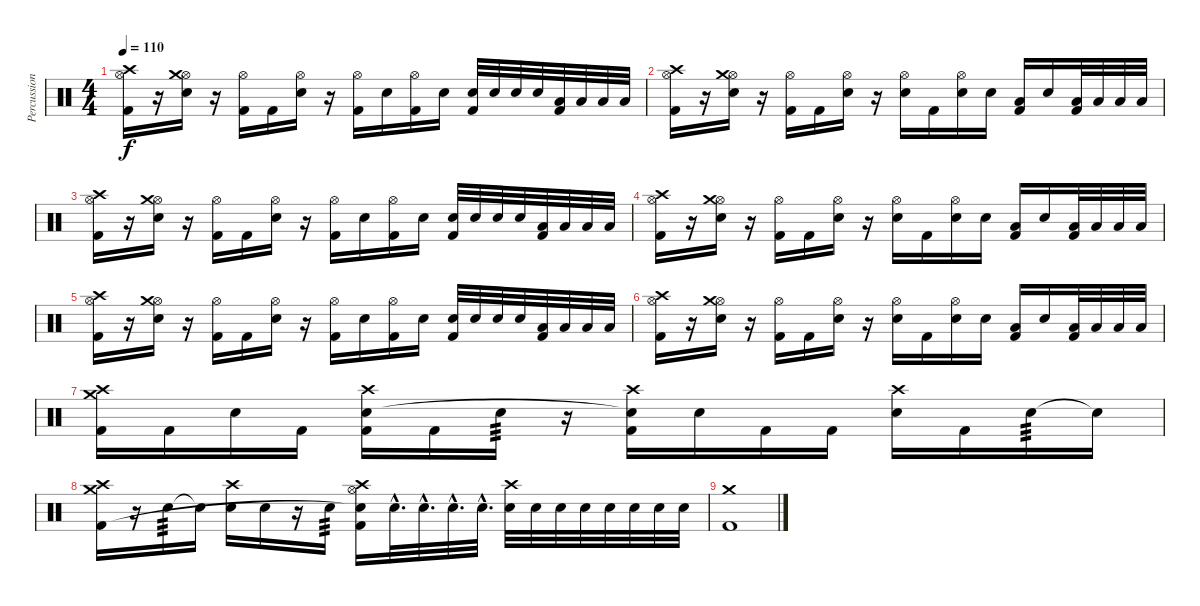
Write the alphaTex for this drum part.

\track ("Percussion" "Percussion") {instrument percussion}
\staff {score}
\articulation defaults
\ts (4 4)
\tempo 110
\clef neutral
\ks c
("Hi-Hat (open)" "Crash high (hit)" "Kick (hit) 2").16{dy f} r.16 ("Hi-Hat (open)" "Crash medium (hit)" "Electric Snare (hit)").16 r.16 ("Hi-Hat (open)" "Kick (hit) 2").16 "Kick (hit) 2".16 ("Hi-Hat (open)" "Electric Snare (hit)").16 r.16 ("Hi-Hat (open)" "Kick (hit) 2").16 "Electric Snare (hit)".16 ("Hi-Hat (open)" "Kick (hit) 2").16 "Electric Snare (hit)".16 ("Electric Snare (hit)" "Kick (hit) 2").32 "Electric Snare (hit)".32 "Electric Snare (hit)".32 "Electric Snare (hit)".32 ("Low Tom (hit)" "Kick (hit) 2").32 "Low Tom (hit)".32 "Low Tom (hit)".32 "Low Tom (hit)".32 |
("Hi-Hat (open)" "Crash high (hit)" "Kick (hit) 2").16 r.16 ("Hi-Hat (open)" "Crash medium (hit)" "Electric Snare (hit)").16 r.16 ("Hi-Hat (open)" "Kick (hit) 2").16 "Kick (hit) 2".16 ("Hi-Hat (open)" "Electric Snare (hit)").16 r.16 ("Hi-Hat (open)" "Electric Snare (hit)").16 "Kick (hit) 2".16 ("Hi-Hat (open)" "Electric Snare (hit)").16 "Electric Snare (hit)".16 ("Low Tom (hit)" "Kick (hit) 2").16 "Electric Snare (hit)".16 ("Low Tom (hit)" "Kick (hit) 2").32 "Low Tom (hit)".32 "Low Tom (hit)".32 "Low Tom (hit)".32 |
("Hi-Hat (open)" "Crash high (hit)" "Kick (hit) 2").16 r.16 ("Hi-Hat (open)" "Crash medium (hit)" "Electric Snare (hit)").16 r.16 ("Hi-Hat (open)" "Kick (hit) 2").16 "Kick (hit) 2".16 ("Hi-Hat (open)" "Electric Snare (hit)").16 r.16 ("Hi-Hat (open)" "Kick (hit) 2").16 "Electric Snare (hit)".16 ("Hi-Hat (open)" "Kick (hit) 2").16 "Electric Snare (hit)".16 ("Electric Snare (hit)" "Kick (hit) 2").32 "Electric Snare (hit)".32 "Electric Snare (hit)".32 "Electric Snare (hit)".32 ("Low Tom (hit)" "Kick (hit) 2").32 "Low Tom (hit)".32 "Low Tom (hit)".32 "Low Tom (hit)".32 |
("Hi-Hat (open)" "Crash high (hit)" "Kick (hit) 2").16 r.16 ("Hi-Hat (open)" "Crash medium (hit)" "Electric Snare (hit)").16 r.16 ("Hi-Hat (open)" "Kick (hit) 2").16 "Kick (hit) 2".16 ("Hi-Hat (open)" "Electric Snare (hit)").16 r.16 ("Hi-Hat (open)" "Electric Snare (hit)").16 "Kick (hit) 2".16 ("Hi-Hat (open)" "Electric Snare (hit)").16 "Electric Snare (hit)".16 ("Low Tom (hit)" "Kick (hit) 2").16 "Electric Snare (hit)".16 ("Low Tom (hit)" "Kick (hit) 2").32 "Low Tom (hit)".32 "Low Tom (hit)".32 "Low Tom (hit)".32 |
("Hi-Hat (open)" "Crash high (hit)" "Kick (hit) 2").16 r.16 ("Hi-Hat (open)" "Crash medium (hit)" "Electric Snare (hit)").16 r.16 ("Hi-Hat (open)" "Kick (hit) 2").16 "Kick (hit) 2".16 ("Hi-Hat (open)" "Electric Snare (hit)").16 r.16 ("Hi-Hat (open)" "Kick (hit) 2").16 "Electric Snare (hit)".16 ("Hi-Hat (open)" "Kick (hit) 2").16 "Electric Snare (hit)".16 ("Electric Snare (hit)" "Kick (hit) 2").32 "Electric Snare (hit)".32 "Electric Snare (hit)".32 "Electric Snare (hit)".32 ("Low Tom (hit)" "Kick (hit) 2").32 "Low Tom (hit)".32 "Low Tom (hit)".32 "Low Tom (hit)".32 |
("Hi-Hat (open)" "Crash high (hit)" "Kick (hit) 2").16 r.16 ("Hi-Hat (open)" "Crash medium (hit)" "Electric Snare (hit)").16 r.16 ("Hi-Hat (open)" "Kick (hit) 2").16 "Kick (hit) 2".16 ("Hi-Hat (open)" "Electric Snare (hit)").16 r.16 ("Hi-Hat (open)" "Electric Snare (hit)").16 "Kick (hit) 2".16 ("Hi-Hat (open)" "Electric Snare (hit)").16 "Electric Snare (hit)".16 ("Low Tom (hit)" "Kick (hit) 2").16 "Electric Snare (hit)".16 ("Low Tom (hit)" "Kick (hit) 2").32 "Low Tom (hit)".32 "Low Tom (hit)".32 "Low Tom (hit)".32 |
("Crash high (hit)" "Crash medium (hit)" "Kick (hit) 2").16 "Kick (hit) 2".16 "Electric Snare (hit)".16 "Kick (hit) 2".16 ("Crash high (hit)" "Electric Snare (hit)" "Kick (hit) 2").16 "Kick (hit) 2".16 "Electric Snare (hit)".16{tp 3} r.16 ("Crash high (hit)" "Snare (hit)"{t} "Kick (hit) 2").16 "Electric Snare (hit)".16 "Kick (hit) 2".16 "Kick (hit) 2".16 ("Crash high (hit)" "Electric Snare (hit)").16 "Kick (hit) 2".16 "Electric Snare (hit)".16{tp 3} "Snare (hit)"{t}.16 |
("Crash high (hit)" "Crash medium (hit)" "Kick (hit) 2").16 r.16 "Electric Snare (hit)".16{tp 3} "Snare (hit)"{t}.16 ("Crash high (hit)" "Electric Snare (hit)").16 "Electric Snare (hit)".16 r.16 "Electric Snare (hit)".16{tp 3} ("Crash high (hit)" "Hi-Hat (open)" "Snare (hit)"{t} "Kick (hit) 2").16 "Electric Snare (hit)"{hac}.32{d} "Electric Snare (hit)"{hac}.32{d} "Electric Snare (hit)"{hac}.32{d} "Electric Snare (hit)"{hac}.32{d} ("Crash high (hit)" "Electric Snare (hit)").32 "Electric Snare (hit)".32 "Electric Snare (hit)".32 "Electric Snare (hit)".32 "Electric Snare (hit)".32 "Electric Snare (hit)".32 "Electric Snare (hit)".32 "Electric Snare (hit)".32 |
("Crash medium (hit)" "Kick (hit) 2").1
